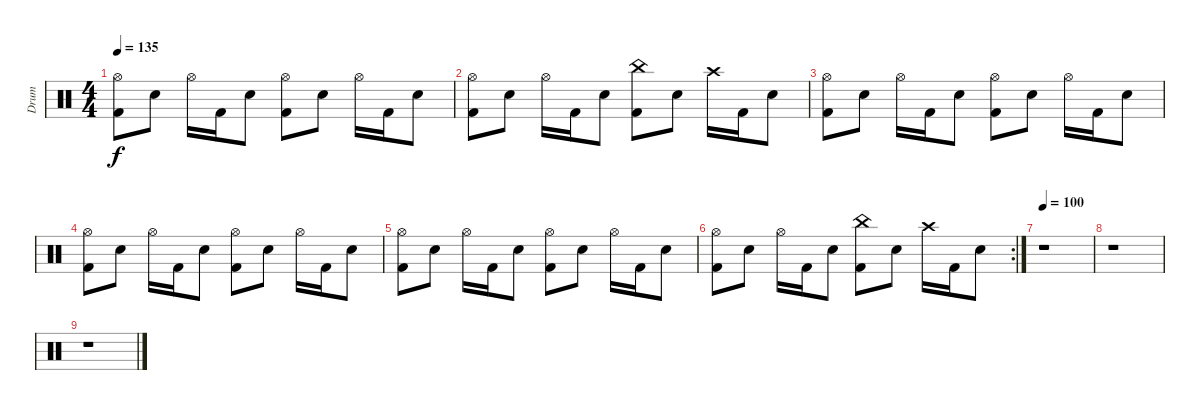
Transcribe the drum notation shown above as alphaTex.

\track ("Drum" "Drum") {instrument percussion}
\staff {score}
\articulation defaults
\ts (4 4)
\tempo 135
\clef neutral
\ks c
("Hi-Hat (open)" "Kick (hit) 2").8{dy f} "Snare (hit) 2".8 "Hi-Hat (open)".16 "Kick (hit) 2".16 "Snare (hit) 2".8 ("Hi-Hat (open)" "Kick (hit) 2").8 "Snare (hit) 2".8 "Hi-Hat (open)".16 "Kick (hit) 2".16 "Snare (hit) 2".8 |
("Hi-Hat (open)" "Kick (hit) 2").8 "Snare (hit) 2".8 "Hi-Hat (open)".16 "Kick (hit) 2".16 "Snare (hit) 2".8 ("China (hit)" "Kick (hit) 2").8 "Snare (hit) 2".8 "Crash high (hit)".16 "Kick (hit) 2".16 "Snare (hit) 2".8 |
("Hi-Hat (open)" "Kick (hit) 2").8 "Snare (hit) 2".8 "Hi-Hat (open)".16 "Kick (hit) 2".16 "Snare (hit) 2".8 ("Hi-Hat (open)" "Kick (hit) 2").8 "Snare (hit) 2".8 "Hi-Hat (open)".16 "Kick (hit) 2".16 "Snare (hit) 2".8 |
("Hi-Hat (open)" "Kick (hit) 2").8 "Snare (hit) 2".8 "Hi-Hat (open)".16 "Kick (hit) 2".16 "Snare (hit) 2".8 ("Hi-Hat (open)" "Kick (hit) 2").8 "Snare (hit) 2".8 "Hi-Hat (open)".16 "Kick (hit) 2".16 "Snare (hit) 2".8 |
("Hi-Hat (open)" "Kick (hit) 2").8 "Snare (hit) 2".8 "Hi-Hat (open)".16 "Kick (hit) 2".16 "Snare (hit) 2".8 ("Hi-Hat (open)" "Kick (hit) 2").8 "Snare (hit) 2".8 "Hi-Hat (open)".16 "Kick (hit) 2".16 "Snare (hit) 2".8 |
\rc 2
("Hi-Hat (open)" "Kick (hit) 2").8 "Snare (hit) 2".8 "Hi-Hat (open)".16 "Kick (hit) 2".16 "Snare (hit) 2".8 ("China (hit)" "Kick (hit) 2").8 "Snare (hit) 2".8 "Crash high (hit)".16 "Kick (hit) 2".16 "Snare (hit) 2".8 |
\tempo 100
r.1 |
r.1 |
r.1
